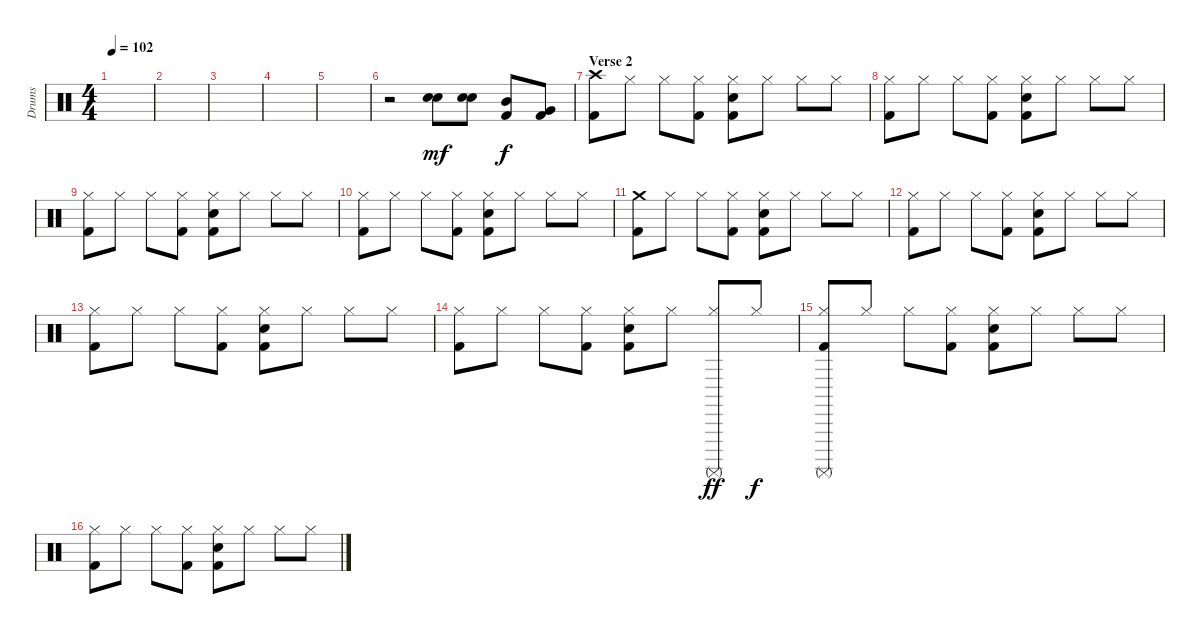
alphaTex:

\track ("Drums" "Drums") {instrument percussion}
\staff {score}
\articulation defaults
\ts (4 4)
\tempo 102
\clef neutral
\ks c
|
|
|
|
|
r.2 ("Electric Snare (hit)" "Electric Snare (hit)").8{dy mf} ("Electric Snare (hit)" "Electric Snare (hit)").8 ("Mid Tom (hit)" "Kick (hit) 2").8{dy f} ("Very Low Tom (hit)" "Kick (hit) 2").8 |
\section ("" "Verse 2")
("Crash high (hit)" "Kick (hit) 2").8 "Hi-Hat (closed)".8 "Hi-Hat (closed)".8 ("Hi-Hat (closed)" "Kick (hit) 2").8 ("Electric Snare (hit)" "Hi-Hat (closed)" "Kick (hit) 2").8 "Hi-Hat (closed)".8 "Hi-Hat (closed)".8 "Hi-Hat (closed)".8 |
("Hi-Hat (closed)" "Kick (hit) 2").8 "Hi-Hat (closed)".8 "Hi-Hat (closed)".8 ("Hi-Hat (closed)" "Kick (hit) 2").8 ("Electric Snare (hit)" "Hi-Hat (closed)" "Kick (hit) 2").8 "Hi-Hat (closed)".8 "Hi-Hat (closed)".8 "Hi-Hat (closed)".8 |
("Hi-Hat (closed)" "Kick (hit) 2").8 "Hi-Hat (closed)".8 "Hi-Hat (closed)".8 ("Hi-Hat (closed)" "Kick (hit) 2").8 ("Electric Snare (hit)" "Hi-Hat (closed)" "Kick (hit) 2").8 "Hi-Hat (closed)".8 "Hi-Hat (closed)".8 "Hi-Hat (closed)".8 |
("Hi-Hat (closed)" "Kick (hit) 2").8 "Hi-Hat (closed)".8 "Hi-Hat (closed)".8 ("Hi-Hat (closed)" "Kick (hit) 2").8 ("Electric Snare (hit)" "Hi-Hat (closed)" "Kick (hit) 2").8 "Hi-Hat (closed)".8 "Hi-Hat (closed)".8 "Hi-Hat (closed)".8 |
("Crash medium (hit)" "Kick (hit) 2").8 "Hi-Hat (closed)".8 "Hi-Hat (closed)".8 ("Hi-Hat (closed)" "Kick (hit) 2").8 ("Electric Snare (hit)" "Hi-Hat (closed)" "Kick (hit) 2").8 "Hi-Hat (closed)".8 "Hi-Hat (closed)".8 "Hi-Hat (closed)".8 |
("Hi-Hat (closed)" "Kick (hit) 2").8 "Hi-Hat (closed)".8 "Hi-Hat (closed)".8 ("Hi-Hat (closed)" "Kick (hit) 2").8 ("Electric Snare (hit)" "Hi-Hat (closed)" "Kick (hit) 2").8 "Hi-Hat (closed)".8 "Hi-Hat (closed)".8 "Hi-Hat (closed)".8 |
("Hi-Hat (closed)" "Kick (hit) 2").8 "Hi-Hat (closed)".8 "Hi-Hat (closed)".8 ("Hi-Hat (closed)" "Kick (hit) 2").8 ("Electric Snare (hit)" "Hi-Hat (closed)" "Kick (hit) 2").8 "Hi-Hat (closed)".8 "Hi-Hat (closed)".8 "Hi-Hat (closed)".8 |
("Hi-Hat (closed)" "Kick (hit) 2").8 "Hi-Hat (closed)".8 "Hi-Hat (closed)".8 ("Hi-Hat (closed)" "Kick (hit) 2").8 ("Electric Snare (hit)" "Hi-Hat (closed)" "Kick (hit) 2").8 "Hi-Hat (closed)".8 ("Surdo (mute)" "Hi-Hat (closed)").8{dy ff} "Hi-Hat (closed)".8{dy f} |
("Surdo (mute)" "Hi-Hat (closed)" "Kick (hit) 2").8 "Hi-Hat (closed)".8 "Hi-Hat (closed)".8 ("Hi-Hat (closed)" "Kick (hit) 2").8 ("Electric Snare (hit)" "Hi-Hat (closed)" "Kick (hit) 2").8 "Hi-Hat (closed)".8 "Hi-Hat (closed)".8 "Hi-Hat (closed)".8 |
("Hi-Hat (closed)" "Kick (hit) 2").8 "Hi-Hat (closed)".8 "Hi-Hat (closed)".8 ("Hi-Hat (closed)" "Kick (hit) 2").8 ("Electric Snare (hit)" "Hi-Hat (closed)" "Kick (hit) 2").8 "Hi-Hat (closed)".8 "Hi-Hat (closed)".8 "Hi-Hat (closed)".8
